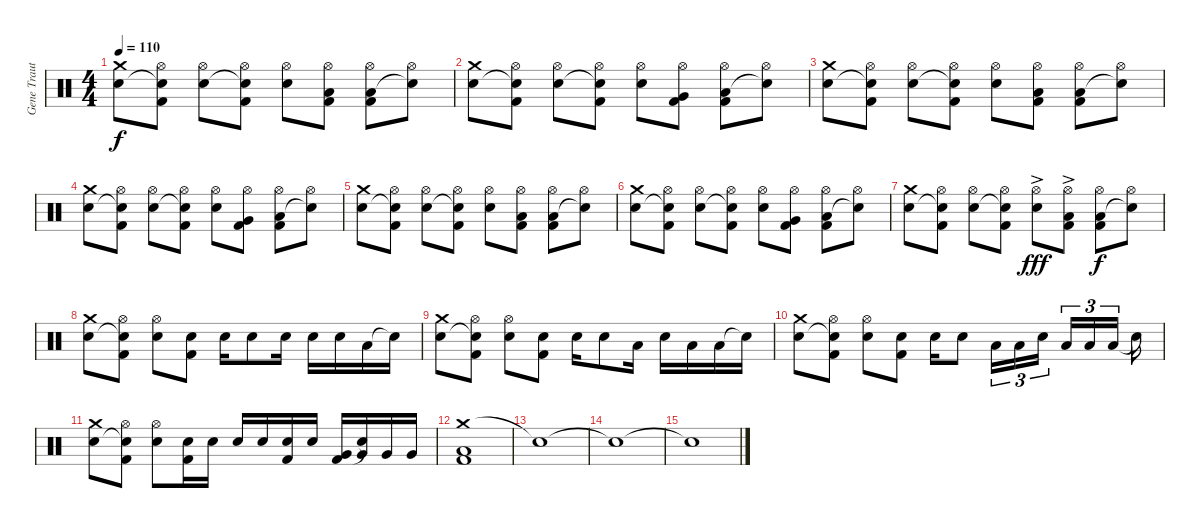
\track ("Gene Trautmann (Drums)" "Gene Traut") {instrument percussion}
\staff {score}
\articulation defaults
\ts (4 4)
\tempo 110
\clef neutral
\ks c
("Crash medium (hit)" "Electric Snare (hit)").8{dy f} ("Hi-Hat (open)" "Snare (hit)"{t} "Kick (hit) 2").8 ("Hi-Hat (open)" "Electric Snare (hit)").8 ("Hi-Hat (open)" "Snare (hit)"{t} "Kick (hit) 2").8 ("Hi-Hat (open)" "Electric Snare (hit)").8 ("Hi-Hat (open)" "Low Tom (hit)" "Kick (hit) 2").8 ("Hi-Hat (open)" "Low Floor Tom (hit)" "Kick (hit) 2").8 ("Hi-Hat (open)" "Snare (hit)"{t}).8 |
("Crash medium (hit)" "Electric Snare (hit)").8 ("Hi-Hat (open)" "Snare (hit)"{t} "Kick (hit) 2").8 ("Hi-Hat (open)" "Electric Snare (hit)").8 ("Hi-Hat (open)" "Snare (hit)"{t} "Kick (hit) 2").8 ("Hi-Hat (open)" "Electric Snare (hit)").8 ("Hi-Hat (open)" "Very Low Tom (hit)" "Kick (hit) 2").8 ("Hi-Hat (open)" "Low Floor Tom (hit)" "Kick (hit) 2").8 ("Hi-Hat (open)" "Snare (hit)"{t}).8 |
("Crash medium (hit)" "Electric Snare (hit)").8 ("Hi-Hat (open)" "Snare (hit)"{t} "Kick (hit) 2").8 ("Hi-Hat (open)" "Electric Snare (hit)").8 ("Hi-Hat (open)" "Snare (hit)"{t} "Kick (hit) 2").8 ("Hi-Hat (open)" "Electric Snare (hit)").8 ("Hi-Hat (open)" "Low Tom (hit)" "Kick (hit) 2").8 ("Hi-Hat (open)" "Low Floor Tom (hit)" "Kick (hit) 2").8 ("Hi-Hat (open)" "Snare (hit)"{t}).8 |
("Crash medium (hit)" "Electric Snare (hit)").8 ("Hi-Hat (open)" "Snare (hit)"{t} "Kick (hit) 2").8 ("Hi-Hat (open)" "Electric Snare (hit)").8 ("Hi-Hat (open)" "Snare (hit)"{t} "Kick (hit) 2").8 ("Hi-Hat (open)" "Electric Snare (hit)").8 ("Hi-Hat (open)" "Very Low Tom (hit)" "Kick (hit) 2").8 ("Hi-Hat (open)" "Low Floor Tom (hit)" "Kick (hit) 2").8 ("Hi-Hat (open)" "Snare (hit)"{t}).8 |
("Crash medium (hit)" "Electric Snare (hit)").8 ("Hi-Hat (open)" "Snare (hit)"{t} "Kick (hit) 2").8 ("Hi-Hat (open)" "Electric Snare (hit)").8 ("Hi-Hat (open)" "Snare (hit)"{t} "Kick (hit) 2").8 ("Hi-Hat (open)" "Electric Snare (hit)").8 ("Hi-Hat (open)" "Low Tom (hit)" "Kick (hit) 2").8 ("Hi-Hat (open)" "Low Floor Tom (hit)" "Kick (hit) 2").8 ("Hi-Hat (open)" "Snare (hit)"{t}).8 |
("Crash medium (hit)" "Electric Snare (hit)").8 ("Hi-Hat (open)" "Snare (hit)"{t} "Kick (hit) 2").8 ("Hi-Hat (open)" "Electric Snare (hit)").8 ("Hi-Hat (open)" "Snare (hit)"{t} "Kick (hit) 2").8 ("Hi-Hat (open)" "Electric Snare (hit)").8 ("Hi-Hat (open)" "Very Low Tom (hit)" "Kick (hit) 2").8 ("Hi-Hat (open)" "Low Floor Tom (hit)" "Kick (hit) 2").8 ("Hi-Hat (open)" "Snare (hit)"{t}).8 |
("Crash medium (hit)" "Electric Snare (hit)").8 ("Hi-Hat (open)" "Snare (hit)"{t} "Kick (hit) 2").8 ("Hi-Hat (open)" "Electric Snare (hit)").8 ("Hi-Hat (open)" "Snare (hit)"{t} "Kick (hit) 2").8 ("Hi-Hat (open)" "Electric Snare (hit)"{ac}).8{dy fff} ("Hi-Hat (open)" "Low Tom (hit)"{ac} "Kick (hit) 2").8 ("Hi-Hat (open)" "Low Floor Tom (hit)" "Kick (hit) 2").8{dy f} ("Hi-Hat (open)" "Snare (hit)"{t}).8 |
("Crash medium (hit)" "Electric Snare (hit)").8 ("Hi-Hat (open)" "Snare (hit)"{t} "Kick (hit) 2").8 ("Hi-Hat (open)" "Electric Snare (hit)").8 ("Electric Snare (hit)" "Kick (hit) 2").8 "Electric Snare (hit)".16 "Electric Snare (hit)".8 "Electric Snare (hit)".16 "Electric Snare (hit)".16 "Electric Snare (hit)".16 "Low Floor Tom (hit)".16 "Snare (hit)"{t}.16 |
("Crash medium (hit)" "Electric Snare (hit)").8 ("Hi-Hat (open)" "Snare (hit)"{t} "Kick (hit) 2").8 ("Hi-Hat (open)" "Electric Snare (hit)").8 ("Electric Snare (hit)" "Kick (hit) 2").8 "Electric Snare (hit)".16 "Electric Snare (hit)".8 "Low Floor Tom (hit)".16 "Electric Snare (hit)".16 "Low Floor Tom (hit)".16 "Low Floor Tom (hit)".16 "Snare (hit)"{t}.16 |
("Crash medium (hit)" "Electric Snare (hit)").8 ("Hi-Hat (open)" "Snare (hit)"{t} "Kick (hit) 2").8 ("Hi-Hat (open)" "Electric Snare (hit)").8 ("Electric Snare (hit)" "Kick (hit) 2").8 "Electric Snare (hit)".16 "Electric Snare (hit)".8 "Low Floor Tom (hit)".16{tu (3 2)} "Low Floor Tom (hit)".16{tu (3 2)} "Electric Snare (hit)".16{tu (3 2)} "Low Floor Tom (hit)".16{tu (3 2)} "Low Floor Tom (hit)".16{tu (3 2)} "Low Floor Tom (hit)".16{tu (3 2)} "Snare (hit)"{t}.16 |
("Crash medium (hit)" "Electric Snare (hit)").8 ("Hi-Hat (open)" "Snare (hit)"{t} "Kick (hit) 2").8 ("Hi-Hat (open)" "Electric Snare (hit)").8 ("Electric Snare (hit)" "Kick (hit) 2").16 "Electric Snare (hit)".16 "Electric Snare (hit)".16 "Electric Snare (hit)".16 ("Electric Snare (hit)" "Kick (hit) 2").16 "Electric Snare (hit)".16 ("Very Low Tom (hit)" "Kick (hit) 2").16 ("Very Low Tom (hit)" "Snare (hit)"{t}).16 "Very Low Tom (hit)".16 "Very Low Tom (hit)".16 |
("Crash medium (hit)" "Low Floor Tom (hit)" "Kick (hit) 2").1 |
"Snare (hit)"{t}.1 |
"Snare (hit)"{t}.1 |
"Snare (hit)"{t}.1
